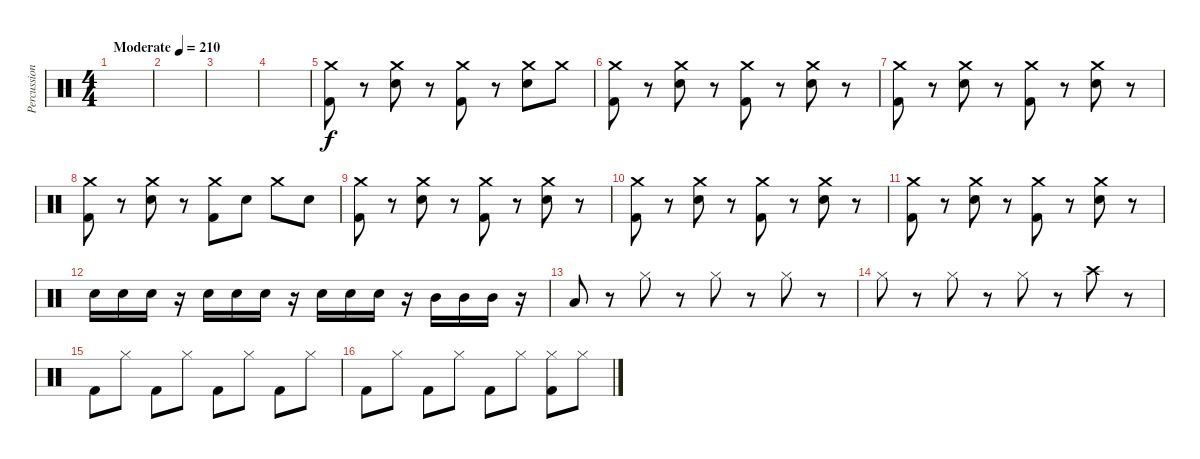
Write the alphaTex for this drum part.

\track ("Percussion" "Percussion") {instrument percussion}
\staff {score}
\articulation defaults
\ts (4 4)
\tempo (210 "Moderate")
\clef neutral
\ks c
|
|
|
|
("Kick (hit) 2" "Crash medium (hit)").8 r.8 ("Snare (hit) 2" "Crash medium (hit)").8 r.8 ("Kick (hit) 2" "Crash medium (hit)").8 r.8 ("Snare (hit) 2" "Crash medium (hit)").8 "Crash medium (hit)".8 |
("Kick (hit) 2" "Crash medium (hit)").8 r.8 ("Snare (hit) 2" "Crash medium (hit)").8 r.8 ("Kick (hit) 2" "Crash medium (hit)").8 r.8 ("Snare (hit) 2" "Crash medium (hit)").8 r.8 |
("Kick (hit) 2" "Crash medium (hit)").8 r.8 ("Snare (hit) 2" "Crash medium (hit)").8 r.8 ("Kick (hit) 2" "Crash medium (hit)").8 r.8 ("Snare (hit) 2" "Crash medium (hit)").8 r.8 |
("Kick (hit) 2" "Crash medium (hit)").8 r.8 ("Snare (hit) 2" "Crash medium (hit)").8 r.8 ("Kick (hit) 2" "Crash medium (hit)").8 "Snare (hit) 2".8 "Crash medium (hit)".8 "Snare (hit) 2".8 |
("Kick (hit) 2" "Crash medium (hit)").8 r.8 ("Snare (hit) 2" "Crash medium (hit)").8 r.8 ("Kick (hit) 2" "Crash medium (hit)").8 r.8 ("Snare (hit) 2" "Crash medium (hit)").8 r.8 |
("Kick (hit) 2" "Crash medium (hit)").8 r.8 ("Snare (hit) 2" "Crash medium (hit)").8 r.8 ("Kick (hit) 2" "Crash medium (hit)").8 r.8 ("Snare (hit) 2" "Crash medium (hit)").8 r.8 |
("Kick (hit) 2" "Crash medium (hit)").8 r.8 ("Snare (hit) 2" "Crash medium (hit)").8 r.8 ("Kick (hit) 2" "Crash medium (hit)").8 r.8 ("Snare (hit) 2" "Crash medium (hit)").8 r.8 |
"Snare (hit) 2".16 "Snare (hit) 2".16 "Snare (hit) 2".16 r.16 "Snare (hit) 2".16 "Snare (hit) 2".16 "Snare (hit) 2".16 r.16 "Snare (hit) 2".16 "Snare (hit) 2".16 "Snare (hit) 2".16 r.16 "Mid Tom (hit)".16 "Mid Tom (hit)".16 "Mid Tom (hit)".16 r.16 |
"Low Tom (hit)".8 r.8 "Hi-Hat (closed)".8 r.8 "Hi-Hat (closed)".8 r.8 "Hi-Hat (closed)".8 r.8 |
"Hi-Hat (closed)".8 r.8 "Hi-Hat (closed)".8 r.8 "Hi-Hat (closed)".8 r.8 "Crash high (hit)".8 r.8 |
"Kick (hit) 2".8 "Hi-Hat (closed)".8 "Kick (hit) 2".8 "Hi-Hat (closed)".8 "Kick (hit) 2".8 "Hi-Hat (closed)".8 "Kick (hit) 2".8 "Hi-Hat (closed)".8 |
"Kick (hit) 2".8 "Hi-Hat (closed)".8 "Kick (hit) 2".8 "Hi-Hat (closed)".8 "Kick (hit) 2".8 "Hi-Hat (closed)".8 ("Kick (hit) 2" "Hi-Hat (closed)").8 "Hi-Hat (closed)".8
